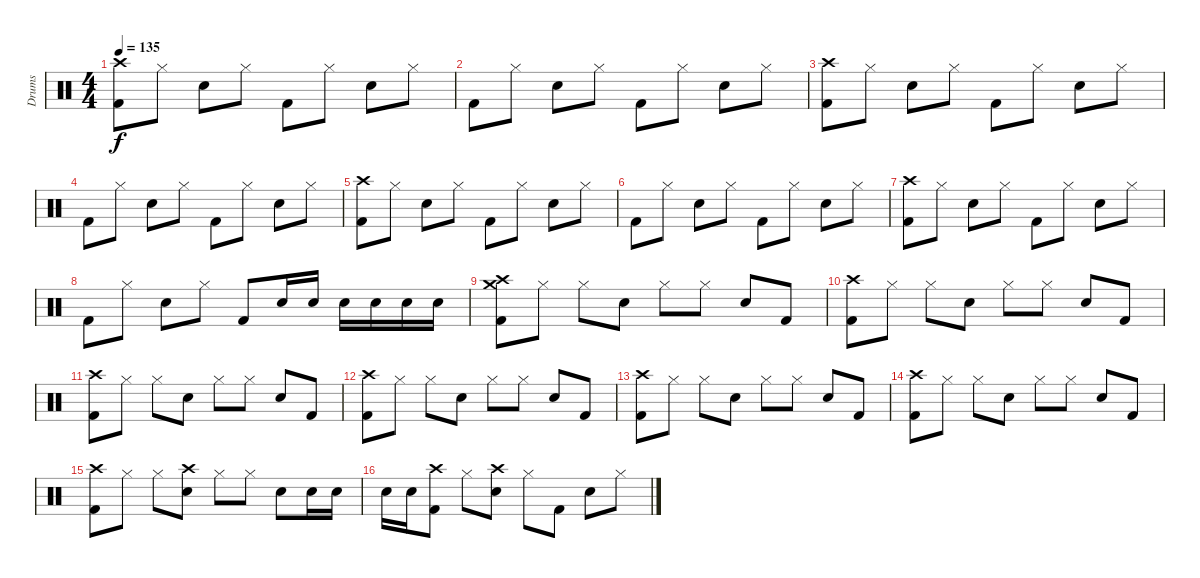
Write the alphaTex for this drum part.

\track ("Drums" "Drums") {instrument percussion}
\staff {score}
\articulation defaults
\ts (4 4)
\tempo 135
\clef neutral
\ks c
("Crash high (hit)" "Kick (hit) 2").8{dy f} "Hi-Hat (closed)".8 "Snare (hit) 2".8 "Hi-Hat (closed)".8 "Kick (hit) 2".8 "Hi-Hat (closed)".8 "Snare (hit) 2".8 "Hi-Hat (closed)".8 |
"Kick (hit) 2".8 "Hi-Hat (closed)".8 "Snare (hit) 2".8 "Hi-Hat (closed)".8 "Kick (hit) 2".8 "Hi-Hat (closed)".8 "Snare (hit) 2".8 "Hi-Hat (closed)".8 |
("Crash high (hit)" "Kick (hit) 2").8 "Hi-Hat (closed)".8 "Snare (hit) 2".8 "Hi-Hat (closed)".8 "Kick (hit) 2".8 "Hi-Hat (closed)".8 "Snare (hit) 2".8 "Hi-Hat (closed)".8 |
"Kick (hit) 2".8 "Hi-Hat (closed)".8 "Snare (hit) 2".8 "Hi-Hat (closed)".8 "Kick (hit) 2".8 "Hi-Hat (closed)".8 "Snare (hit) 2".8 "Hi-Hat (closed)".8 |
("Crash high (hit)" "Kick (hit) 2").8 "Hi-Hat (closed)".8 "Snare (hit) 2".8 "Hi-Hat (closed)".8 "Kick (hit) 2".8 "Hi-Hat (closed)".8 "Snare (hit) 2".8 "Hi-Hat (closed)".8 |
"Kick (hit) 2".8 "Hi-Hat (closed)".8 "Snare (hit) 2".8 "Hi-Hat (closed)".8 "Kick (hit) 2".8 "Hi-Hat (closed)".8 "Snare (hit) 2".8 "Hi-Hat (closed)".8 |
("Crash high (hit)" "Kick (hit) 2").8 "Hi-Hat (closed)".8 "Snare (hit) 2".8 "Hi-Hat (closed)".8 "Kick (hit) 2".8 "Hi-Hat (closed)".8 "Snare (hit) 2".8 "Hi-Hat (closed)".8 |
"Kick (hit) 2".8 "Hi-Hat (closed)".8 "Snare (hit) 2".8 "Hi-Hat (closed)".8 "Kick (hit) 2".8 "Snare (hit) 2".16 "Snare (hit) 2".16 "Snare (hit) 2".16 "Snare (hit) 2".16 "Snare (hit) 2".16 "Snare (hit) 2".16 |
("Crash medium (hit)" "Crash high (hit)" "Kick (hit) 2").8 "Hi-Hat (closed)".8 "Hi-Hat (closed)".8 "Snare (hit) 2".8 "Hi-Hat (closed)".8 "Hi-Hat (closed)".8 "Snare (hit) 2".8 "Kick (hit) 2".8 |
("Crash high (hit)" "Kick (hit) 2").8 "Hi-Hat (closed)".8 "Hi-Hat (closed)".8 "Snare (hit) 2".8 "Hi-Hat (closed)".8 "Hi-Hat (closed)".8 "Snare (hit) 2".8 "Kick (hit) 2".8 |
("Crash high (hit)" "Kick (hit) 2").8 "Hi-Hat (closed)".8 "Hi-Hat (closed)".8 "Snare (hit) 2".8 "Hi-Hat (closed)".8 "Hi-Hat (closed)".8 "Snare (hit) 2".8 "Kick (hit) 2".8 |
("Crash high (hit)" "Kick (hit) 2").8 "Hi-Hat (closed)".8 "Hi-Hat (closed)".8 "Snare (hit) 2".8 "Hi-Hat (closed)".8 "Hi-Hat (closed)".8 "Snare (hit) 2".8 "Kick (hit) 2".8 |
("Crash high (hit)" "Kick (hit) 2").8 "Hi-Hat (closed)".8 "Hi-Hat (closed)".8 "Snare (hit) 2".8 "Hi-Hat (closed)".8 "Hi-Hat (closed)".8 "Snare (hit) 2".8 "Kick (hit) 2".8 |
("Crash high (hit)" "Kick (hit) 2").8 "Hi-Hat (closed)".8 "Hi-Hat (closed)".8 "Snare (hit) 2".8 "Hi-Hat (closed)".8 "Hi-Hat (closed)".8 "Snare (hit) 2".8 "Kick (hit) 2".8 |
("Crash high (hit)" "Kick (hit) 2").8 "Hi-Hat (closed)".8 "Hi-Hat (closed)".8 ("Crash high (hit)" "Snare (hit) 2").8 "Hi-Hat (closed)".8 "Hi-Hat (closed)".8 "Snare (hit) 2".8 "Snare (hit) 2".16 "Snare (hit) 2".16 |
"Snare (hit) 2".16 "Snare (hit) 2".16 ("Crash high (hit)" "Kick (hit) 2").8 "Hi-Hat (closed)".8 ("Crash high (hit)" "Snare (hit) 2").8 "Hi-Hat (closed)".8 "Kick (hit) 2".8 "Snare (hit) 2".8 "Hi-Hat (closed)".8
